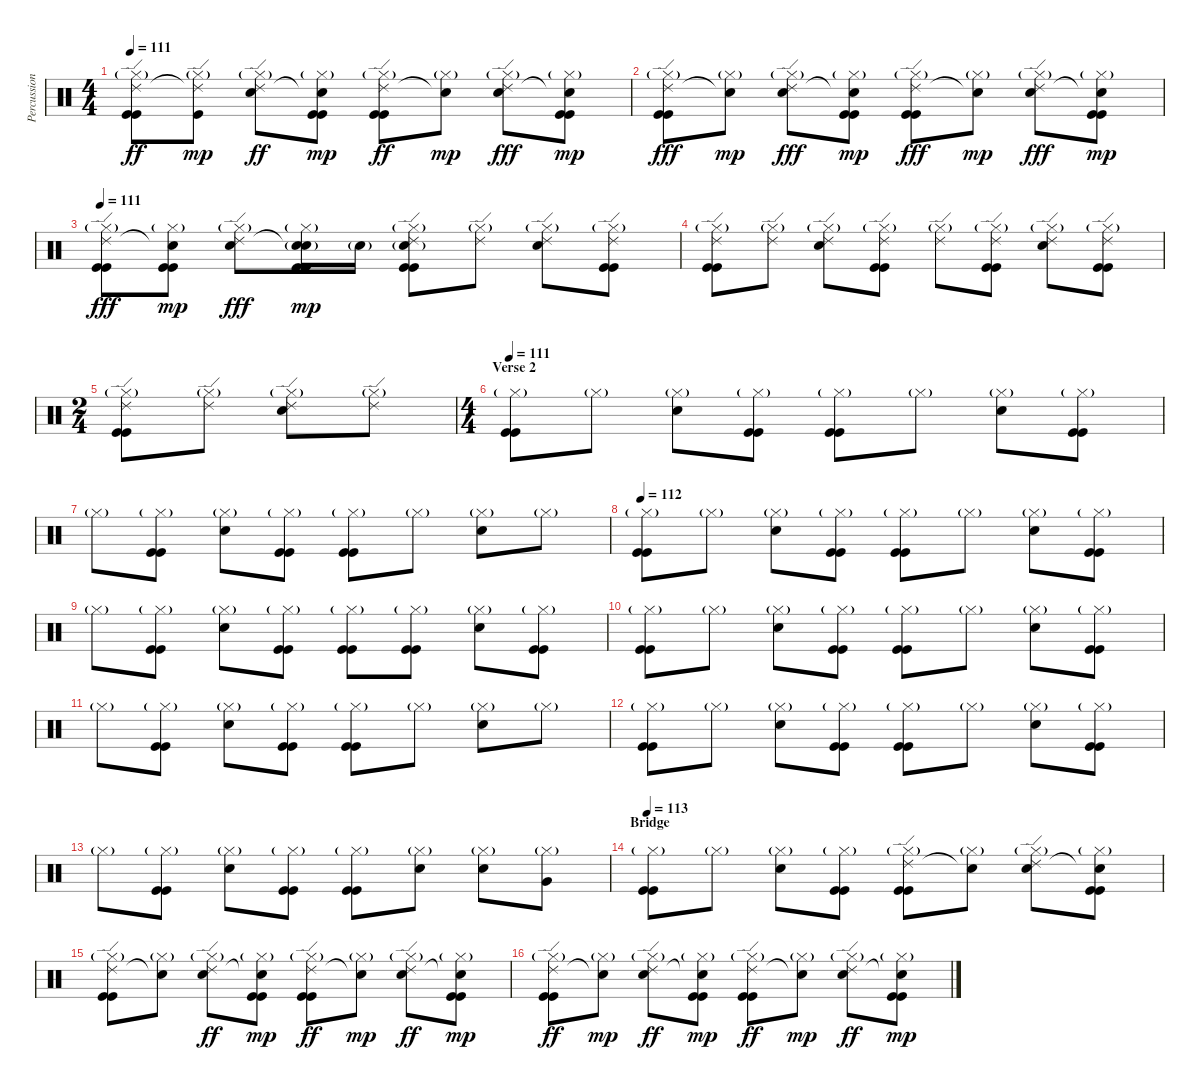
\track ("Percussion" "Percussion") {instrument percussion}
\staff {score}
\articulation defaults
\ts (4 4)
\tempo 111
\clef neutral
\ks c
("Hi-Hat (closed)"{g} "Ride (edge) 2" "Kick (hit)" "Kick (hit)").8{dy ff} ("Hi-Hat (closed)"{g} "Ride (edge) 2"{t} "Kick (hit)").8{dy mp} ("Hi-Hat (closed)"{g} "Ride (edge) 2" "Snare (hit) 2").8{dy ff} ("Hi-Hat (closed)"{g} "Snare (hit)"{t} "Kick (hit)" "Kick (hit)").8{dy mp} ("Hi-Hat (closed)"{g} "Ride (edge) 2" "Kick (hit)" "Kick (hit)").8{dy ff} ("Hi-Hat (closed)"{g} "Snare (hit)"{t}).8{dy mp} ("Hi-Hat (closed)"{g} "Ride (edge) 2" "Snare (hit) 2").8{dy fff} ("Hi-Hat (closed)"{g} "Snare (hit)"{t} "Kick (hit)" "Kick (hit)").8{dy mp} |
("Hi-Hat (closed)"{g} "Ride (edge) 2" "Kick (hit)" "Kick (hit)").8{dy fff} ("Hi-Hat (closed)"{g} "Snare (hit)"{t}).8{dy mp} ("Hi-Hat (closed)"{g} "Ride (edge) 2" "Snare (hit) 2").8{dy fff} ("Hi-Hat (closed)"{g} "Snare (hit)"{t} "Kick (hit)" "Kick (hit)").8{dy mp} ("Hi-Hat (closed)"{g} "Ride (edge) 2" "Kick (hit)" "Kick (hit)").8{dy fff} ("Hi-Hat (closed)"{g} "Snare (hit)"{t}).8{dy mp} ("Hi-Hat (closed)"{g} "Ride (edge) 2" "Snare (hit) 2").8{dy fff} ("Hi-Hat (closed)"{g} "Snare (hit)"{t} "Kick (hit)" "Kick (hit)").8{dy mp} |
\tempo 111
("Hi-Hat (closed)"{g} "Ride (edge) 2" "Kick (hit)" "Kick (hit)").8{dy fff} ("Hi-Hat (closed)"{g} "Snare (hit)"{t} "Kick (hit)" "Kick (hit)").8{dy mp} ("Hi-Hat (closed)"{g} "Ride (edge) 2" "Snare (hit) 2").8{dy fff} ("Hi-Hat (closed)"{g} "Snare (hit)"{t} "Snare (hit) 2"{g} "Kick (hit)" "Kick (hit)").16{dy mp} "Snare (hit) 2"{g}.16 ("Hi-Hat (closed)"{g} "Ride (edge) 2" "Snare (hit) 2"{g} "Kick (hit)" "Kick (hit)").8 ("Hi-Hat (closed)"{g} "Ride (edge) 2").8 ("Hi-Hat (closed)"{g} "Ride (edge) 2" "Snare (hit) 2").8 ("Hi-Hat (closed)"{g} "Ride (edge) 2" "Kick (hit)" "Kick (hit)").8 |
("Hi-Hat (closed)"{g} "Ride (edge) 2" "Kick (hit)" "Kick (hit)").8 ("Hi-Hat (closed)"{g} "Ride (edge) 2").8 ("Hi-Hat (closed)"{g} "Ride (edge) 2" "Snare (hit) 2").8 ("Hi-Hat (closed)"{g} "Ride (edge) 2" "Kick (hit)" "Kick (hit)").8 ("Hi-Hat (closed)"{g} "Ride (edge) 2").8 ("Hi-Hat (closed)"{g} "Ride (edge) 2" "Kick (hit)" "Kick (hit)").8 ("Hi-Hat (closed)"{g} "Ride (edge) 2" "Snare (hit) 2").8 ("Hi-Hat (closed)"{g} "Ride (edge) 2" "Kick (hit)" "Kick (hit)").8 |
\ts (2 4)
("Hi-Hat (closed)"{g} "Ride (edge) 2" "Kick (hit)" "Kick (hit)").8 ("Hi-Hat (closed)"{g} "Ride (edge) 2").8 ("Hi-Hat (closed)"{g} "Ride (edge) 2" "Snare (hit) 2").8 ("Hi-Hat (closed)"{g} "Ride (edge) 2").8 |
\ts (4 4)
\section ("" "Verse 2")
\tempo 111
("Hi-Hat (closed)"{g} "Kick (hit)" "Kick (hit)").8 "Hi-Hat (closed)"{g}.8 ("Hi-Hat (closed)"{g} "Snare (hit) 2").8 ("Hi-Hat (closed)"{g} "Kick (hit)" "Kick (hit)").8 ("Hi-Hat (closed)"{g} "Kick (hit)" "Kick (hit)").8 "Hi-Hat (closed)"{g}.8 ("Hi-Hat (closed)"{g} "Snare (hit) 2").8 ("Hi-Hat (closed)"{g} "Kick (hit)" "Kick (hit)").8 |
"Hi-Hat (closed)"{g}.8 ("Hi-Hat (closed)"{g} "Kick (hit)" "Kick (hit)").8 ("Hi-Hat (closed)"{g} "Snare (hit) 2").8 ("Hi-Hat (closed)"{g} "Kick (hit)" "Kick (hit)").8 ("Hi-Hat (closed)"{g} "Kick (hit)" "Kick (hit)").8 "Hi-Hat (closed)"{g}.8 ("Hi-Hat (closed)"{g} "Snare (hit) 2").8 "Hi-Hat (closed)"{g}.8 |
\tempo 112
("Hi-Hat (closed)"{g} "Kick (hit)" "Kick (hit)").8 "Hi-Hat (closed)"{g}.8 ("Hi-Hat (closed)"{g} "Snare (hit) 2").8 ("Hi-Hat (closed)"{g} "Kick (hit)" "Kick (hit)").8 ("Hi-Hat (closed)"{g} "Kick (hit)" "Kick (hit)").8 "Hi-Hat (closed)"{g}.8 ("Hi-Hat (closed)"{g} "Snare (hit) 2").8 ("Hi-Hat (closed)"{g} "Kick (hit)" "Kick (hit)").8 |
"Hi-Hat (closed)"{g}.8 ("Hi-Hat (closed)"{g} "Kick (hit)" "Kick (hit)").8 ("Hi-Hat (closed)"{g} "Snare (hit) 2").8 ("Hi-Hat (closed)"{g} "Kick (hit)" "Kick (hit)").8 ("Hi-Hat (closed)"{g} "Kick (hit)" "Kick (hit)").8 ("Hi-Hat (closed)"{g} "Kick (hit)" "Kick (hit)").8 ("Hi-Hat (closed)"{g} "Snare (hit) 2").8 ("Hi-Hat (closed)"{g} "Kick (hit)" "Kick (hit)").8 |
("Hi-Hat (closed)"{g} "Kick (hit)" "Kick (hit)").8 "Hi-Hat (closed)"{g}.8 ("Hi-Hat (closed)"{g} "Snare (hit) 2").8 ("Hi-Hat (closed)"{g} "Kick (hit)" "Kick (hit)").8 ("Hi-Hat (closed)"{g} "Kick (hit)" "Kick (hit)").8 "Hi-Hat (closed)"{g}.8 ("Hi-Hat (closed)"{g} "Snare (hit) 2").8 ("Hi-Hat (closed)"{g} "Kick (hit)" "Kick (hit)").8 |
"Hi-Hat (closed)"{g}.8 ("Hi-Hat (closed)"{g} "Kick (hit)" "Kick (hit)").8 ("Hi-Hat (closed)"{g} "Snare (hit) 2").8 ("Hi-Hat (closed)"{g} "Kick (hit)" "Kick (hit)").8 ("Hi-Hat (closed)"{g} "Kick (hit)" "Kick (hit)").8 "Hi-Hat (closed)"{g}.8 ("Hi-Hat (closed)"{g} "Snare (hit) 2").8 "Hi-Hat (closed)"{g}.8 |
("Hi-Hat (closed)"{g} "Kick (hit)" "Kick (hit)").8 "Hi-Hat (closed)"{g}.8 ("Hi-Hat (closed)"{g} "Snare (hit) 2").8 ("Hi-Hat (closed)"{g} "Kick (hit)" "Kick (hit)").8 ("Hi-Hat (closed)"{g} "Kick (hit)" "Kick (hit)").8 "Hi-Hat (closed)"{g}.8 ("Hi-Hat (closed)"{g} "Snare (hit) 2").8 ("Hi-Hat (closed)"{g} "Kick (hit)" "Kick (hit)").8 |
"Hi-Hat (closed)"{g}.8 ("Hi-Hat (closed)"{g} "Kick (hit)" "Kick (hit)").8 ("Hi-Hat (closed)"{g} "Snare (hit) 2").8 ("Hi-Hat (closed)"{g} "Kick (hit)" "Kick (hit)").8 ("Hi-Hat (closed)"{g} "Kick (hit)" "Kick (hit)").8 ("Hi-Hat (closed)"{g} "Snare (hit) 2").8 ("Hi-Hat (closed)"{g} "Snare (hit) 2").8 ("Hi-Hat (closed)"{g} "Very Low Tom (hit)").8 |
\section ("" "Bridge")
\tempo 113
("Hi-Hat (closed)"{g} "Kick (hit)" "Kick (hit)").8 "Hi-Hat (closed)"{g}.8 ("Hi-Hat (closed)"{g} "Snare (hit) 2").8 ("Hi-Hat (closed)"{g} "Kick (hit)" "Kick (hit)").8 ("Hi-Hat (closed)"{g} "Ride (edge) 2" "Kick (hit)" "Kick (hit)").8 ("Hi-Hat (closed)"{g} "Snare (hit)"{t}).8 ("Hi-Hat (closed)"{g} "Ride (edge) 2" "Snare (hit) 2").8 ("Hi-Hat (closed)"{g} "Snare (hit)"{t} "Kick (hit)" "Kick (hit)").8 |
("Hi-Hat (closed)"{g} "Ride (edge) 2" "Kick (hit)" "Kick (hit)").8 ("Hi-Hat (closed)"{g} "Snare (hit)"{t}).8 ("Hi-Hat (closed)"{g} "Ride (edge) 2" "Snare (hit) 2").8{dy ff} ("Hi-Hat (closed)"{g} "Snare (hit)"{t} "Kick (hit)" "Kick (hit)").8{dy mp} ("Hi-Hat (closed)"{g} "Ride (edge) 2" "Kick (hit)" "Kick (hit)").8{dy ff} ("Hi-Hat (closed)"{g} "Snare (hit)"{t}).8{dy mp} ("Hi-Hat (closed)"{g} "Ride (edge) 2" "Snare (hit) 2").8{dy ff} ("Hi-Hat (closed)"{g} "Snare (hit)"{t} "Kick (hit)" "Kick (hit)").8{dy mp} |
("Hi-Hat (closed)"{g} "Ride (edge) 2" "Kick (hit)" "Kick (hit)").8{dy ff} ("Hi-Hat (closed)"{g} "Snare (hit)"{t}).8{dy mp} ("Hi-Hat (closed)"{g} "Ride (edge) 2" "Snare (hit) 2").8{dy ff} ("Hi-Hat (closed)"{g} "Snare (hit)"{t} "Kick (hit)" "Kick (hit)").8{dy mp} ("Hi-Hat (closed)"{g} "Ride (edge) 2" "Kick (hit)" "Kick (hit)").8{dy ff} ("Hi-Hat (closed)"{g} "Snare (hit)"{t}).8{dy mp} ("Hi-Hat (closed)"{g} "Ride (edge) 2" "Snare (hit) 2").8{dy ff} ("Hi-Hat (closed)"{g} "Snare (hit)"{t} "Kick (hit)" "Kick (hit)").8{dy mp}
